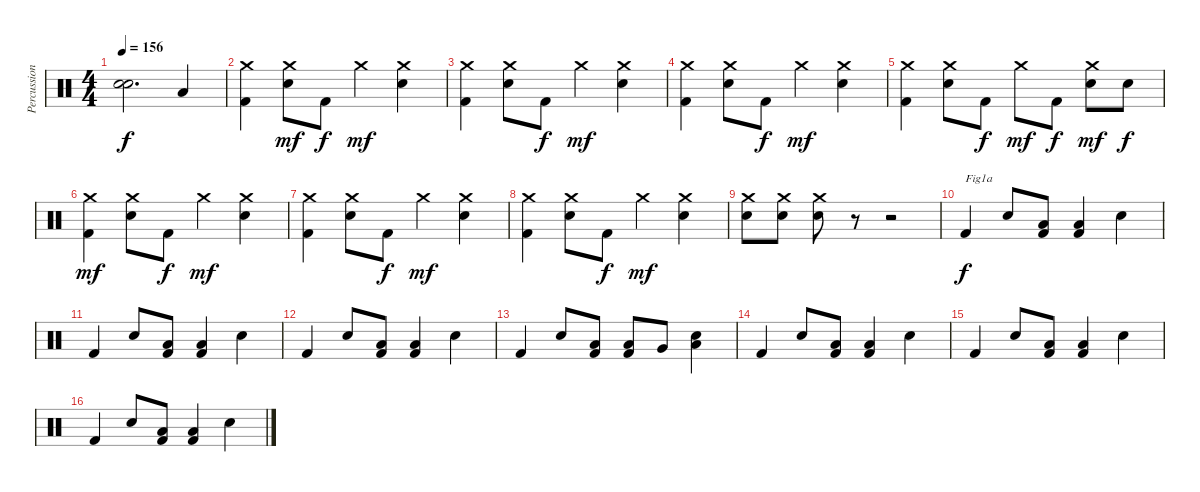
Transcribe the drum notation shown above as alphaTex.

\track ("Percussions" "Percussion") {instrument percussion}
\staff {score}
\articulation defaults
\ts (4 4)
\tempo 156
\clef neutral
\ks c
("Snare (hit)"{t} "Snare (hit)"{t}).2{d dy f} "Low Floor Tom (hit)".4 |
("Kick (hit) 2" "Crash medium (hit)").4 ("Electric Snare (hit)" "Crash medium (hit)").8{dy mf} "Kick (hit) 2".8{dy f} "Crash medium (hit)".4{dy mf} ("Electric Snare (hit)" "Crash medium (hit)").4 |
("Kick (hit) 2" "Crash medium (hit)").4 ("Electric Snare (hit)" "Crash medium (hit)").8 "Kick (hit) 2".8{dy f} "Crash medium (hit)".4{dy mf} ("Electric Snare (hit)" "Crash medium (hit)").4 |
("Kick (hit) 2" "Crash medium (hit)").4 ("Electric Snare (hit)" "Crash medium (hit)").8 "Kick (hit) 2".8{dy f} "Crash medium (hit)".4{dy mf} ("Electric Snare (hit)" "Crash medium (hit)").4 |
("Kick (hit) 2" "Crash medium (hit)").4 ("Electric Snare (hit)" "Crash medium (hit)").8 "Kick (hit) 2".8{dy f} "Crash medium (hit)".8{dy mf} "Kick (hit) 2".8{dy f} ("Electric Snare (hit)" "Crash medium (hit)").8{dy mf} "Electric Snare (hit)".8{dy f} |
("Kick (hit) 2" "Crash medium (hit)").4{dy mf} ("Electric Snare (hit)" "Crash medium (hit)").8 "Kick (hit) 2".8{dy f} "Crash medium (hit)".4{dy mf} ("Electric Snare (hit)" "Crash medium (hit)").4 |
("Kick (hit) 2" "Crash medium (hit)").4 ("Electric Snare (hit)" "Crash medium (hit)").8 "Kick (hit) 2".8{dy f} "Crash medium (hit)".4{dy mf} ("Electric Snare (hit)" "Crash medium (hit)").4 |
("Kick (hit) 2" "Crash medium (hit)").4 ("Electric Snare (hit)" "Crash medium (hit)").8 "Kick (hit) 2".8{dy f} "Crash medium (hit)".4{dy mf} ("Electric Snare (hit)" "Crash medium (hit)").4 |
("Electric Snare (hit)" "Crash medium (hit)").8 ("Electric Snare (hit)" "Crash medium (hit)").8 ("Electric Snare (hit)" "Crash medium (hit)").8 r.8 r.2 |
"Kick (hit) 2".4{txt "Fig1a" dy f} "Electric Snare (hit)".8 ("Kick (hit) 2" "Low Floor Tom (hit)").8 ("Kick (hit) 2" "Low Floor Tom (hit)").4 "Electric Snare (hit)".4 |
"Kick (hit) 2".4 "Electric Snare (hit)".8 ("Kick (hit) 2" "Low Floor Tom (hit)").8 ("Kick (hit) 2" "Low Floor Tom (hit)").4 "Electric Snare (hit)".4 |
"Kick (hit) 2".4 "Electric Snare (hit)".8 ("Kick (hit) 2" "Low Floor Tom (hit)").8 ("Kick (hit) 2" "Low Floor Tom (hit)").4 "Electric Snare (hit)".4 |
"Kick (hit) 2".4 "Electric Snare (hit)".8 ("Kick (hit) 2" "Low Floor Tom (hit)").8 ("Kick (hit) 2" "Low Floor Tom (hit)").8 "Very Low Tom (hit)".8 ("Electric Snare (hit)" "Low Floor Tom (hit)").4 |
"Kick (hit) 2".4 "Electric Snare (hit)".8 ("Kick (hit) 2" "Low Floor Tom (hit)").8 ("Kick (hit) 2" "Low Floor Tom (hit)").4 "Electric Snare (hit)".4 |
"Kick (hit) 2".4 "Electric Snare (hit)".8 ("Kick (hit) 2" "Low Floor Tom (hit)").8 ("Kick (hit) 2" "Low Floor Tom (hit)").4 "Electric Snare (hit)".4 |
"Kick (hit) 2".4 "Electric Snare (hit)".8 ("Kick (hit) 2" "Low Floor Tom (hit)").8 ("Kick (hit) 2" "Low Floor Tom (hit)").4 "Electric Snare (hit)".4
